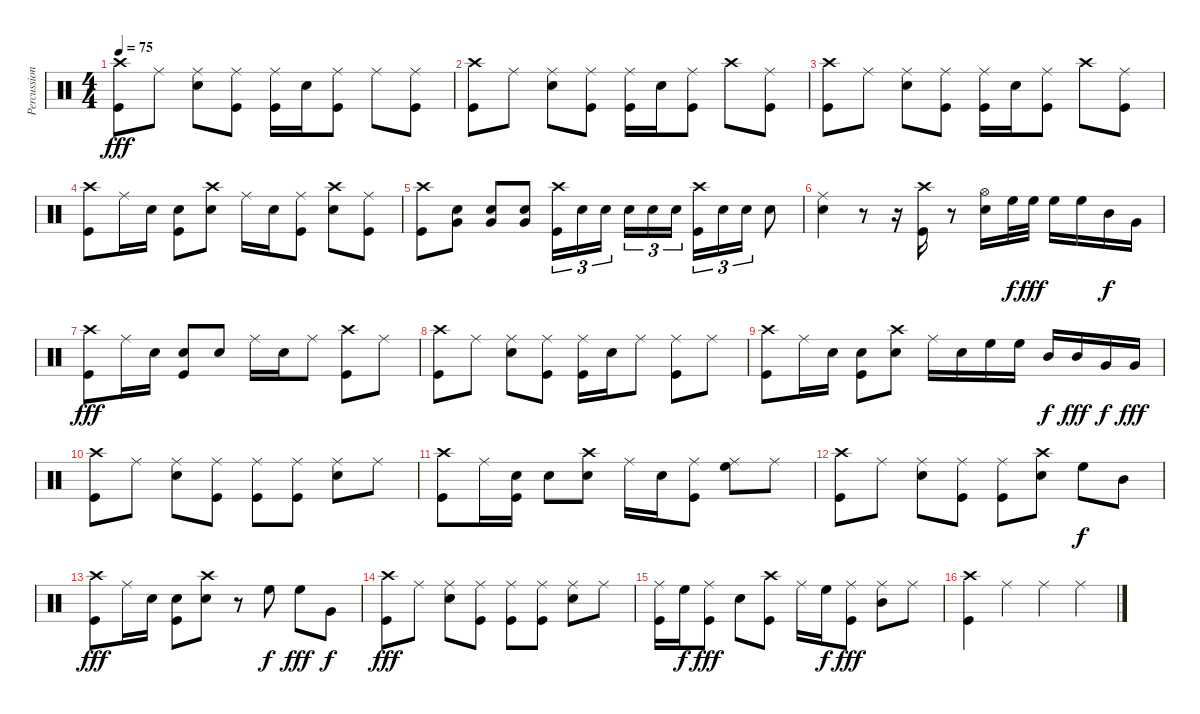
\track ("Percussion" "Percussion") {instrument percussion}
\staff {score}
\articulation defaults
\ts (4 4)
\tempo 75
\clef neutral
\ks c
("Crash high (hit)" "Kick (hit)").8{dy fff} "Ride (middle)".8 ("Ride (middle)" "Snare (hit) 2").8 ("Ride (middle)" "Kick (hit)").8 ("Ride (middle)" "Kick (hit)").16 "Snare (hit) 2".16 ("Ride (middle)" "Kick (hit)").8 "Ride (middle)".8 ("Ride (middle)" "Kick (hit)").8 |
("Crash high (hit)" "Kick (hit)").8 "Ride (middle)".8 ("Ride (middle)" "Snare (hit) 2").8 ("Ride (middle)" "Kick (hit)").8 ("Ride (middle)" "Kick (hit)").16 "Snare (hit) 2".16 ("Ride (middle)" "Kick (hit)").8 "Crash high (hit)".8 ("Ride (middle)" "Kick (hit)").8 |
("Crash high (hit)" "Kick (hit)").8 "Ride (middle)".8 ("Ride (middle)" "Snare (hit) 2").8 ("Ride (middle)" "Kick (hit)").8 ("Ride (middle)" "Kick (hit)").16 "Snare (hit) 2".16 ("Ride (middle)" "Kick (hit)").8 "Crash high (hit)".8 ("Ride (middle)" "Kick (hit)").8 |
("Crash high (hit)" "Kick (hit)").8 "Ride (middle)".16 "Snare (hit) 2".16 ("Snare (hit) 2" "Kick (hit)").8 ("Crash high (hit)" "Snare (hit) 2").8 "Ride (middle)".16 "Snare (hit) 2".16 ("Ride (middle)" "Kick (hit)").8 ("Crash high (hit)" "Snare (hit) 2").8 ("Ride (middle)" "Kick (hit)").8 |
("Crash high (hit)" "Kick (hit)").8 ("Very Low Tom (hit)" "Snare (hit) 2").8 ("Very Low Tom (hit)" "Snare (hit) 2").8 ("Very Low Tom (hit)" "Snare (hit) 2").8 ("Crash high (hit)" "Kick (hit)").16{tu (3 2)} "Snare (hit) 2".16{tu (3 2)} "Snare (hit) 2".16{tu (3 2)} "Snare (hit) 2".16{tu (3 2)} "Snare (hit) 2".16{tu (3 2)} "Snare (hit) 2".16{tu (3 2)} ("Crash high (hit)" "Kick (hit)").16{tu (3 2)} "Snare (hit) 2".16{tu (3 2)} "Snare (hit) 2".16{tu (3 2)} "Snare (hit) 2".8 |
("Ride (middle)" "Snare (hit) 2").4 r.8 r.16 ("Crash high (hit)" "Kick (hit)").16 r.8 ("Hi-Hat (open)" "Snare (hit) 2").16 "High Floor Tom (hit)".32{dy f} "High Floor Tom (hit)".32{dy fff} "High Floor Tom (hit)".16 "High Floor Tom (hit)".16 "Mid Tom (hit)".16{dy f} "Very Low Tom (hit)".16 |
("Crash high (hit)" "Kick (hit)").8{dy fff} "Ride (middle)".16 "Snare (hit) 2".16 ("Snare (hit) 2" "Kick (hit)").8 "Snare (hit) 2".8 "Ride (middle)".16 "Snare (hit) 2".16 "Ride (middle)".8 ("Crash high (hit)" "Kick (hit)").8 "Ride (middle)".8 |
("Crash high (hit)" "Kick (hit)").8 "Ride (middle)".8 ("Ride (middle)" "Snare (hit) 2").8 ("Ride (middle)" "Kick (hit)").8 ("Ride (middle)" "Kick (hit)").16 "Snare (hit) 2".16 "Ride (middle)".8 ("Ride (middle)" "Kick (hit)").8 "Ride (middle)".8 |
("Crash high (hit)" "Kick (hit)").8 "Ride (middle)".16 "Snare (hit) 2".16 ("Snare (hit) 2" "Kick (hit)").8 ("Crash high (hit)" "Snare (hit) 2").8 "Ride (middle)".16 "Snare (hit) 2".16 "High Floor Tom (hit)".16 "High Floor Tom (hit)".16 "Mid Tom (hit)".16{dy f} "Mid Tom (hit)".16{dy fff} "Very Low Tom (hit)".16{dy f} "Very Low Tom (hit)".16{dy fff} |
("Crash high (hit)" "Kick (hit)").8 "Ride (middle)".8 ("Ride (middle)" "Snare (hit) 2").8 ("Ride (middle)" "Kick (hit)").8 ("Ride (middle)" "Kick (hit)").8 ("Ride (middle)" "Kick (hit)").8 ("Ride (middle)" "Snare (hit) 2").8 "Ride (middle)".8 |
("Crash high (hit)" "Kick (hit)").8 "Ride (middle)".16 ("Snare (hit) 2" "Kick (hit)").16 "Snare (hit) 2".8 ("Crash high (hit)" "Snare (hit) 2").8 "Ride (middle)".16 "Snare (hit) 2".16 ("Ride (middle)" "Kick (hit)").8 ("Ride (middle)" "High Floor Tom (hit)").8 "Ride (middle)".8 |
("Crash high (hit)" "Kick (hit)").8 "Ride (middle)".8 ("Ride (middle)" "Snare (hit) 2").8 ("Ride (middle)" "Kick (hit)").8 ("Ride (middle)" "Kick (hit)").8 ("Crash high (hit)" "Snare (hit) 2").8 "High Floor Tom (hit)".8{dy f} "Mid Tom (hit)".8 |
("Crash high (hit)" "Kick (hit)").8{dy fff} "Ride (middle)".16 "Snare (hit) 2".16 ("Snare (hit) 2" "Kick (hit)").8 ("Crash high (hit)" "Snare (hit) 2").8 r.8 "High Floor Tom (hit)".8{dy f} "High Floor Tom (hit)".8{dy fff} "Very Low Tom (hit)".8{dy f} |
("Crash high (hit)" "Kick (hit)").8{dy fff} "Ride (middle)".8 ("Ride (middle)" "Snare (hit) 2").8 ("Ride (middle)" "Kick (hit)").8 ("Ride (middle)" "Kick (hit)").8 ("Ride (middle)" "Kick (hit)").8 ("Ride (middle)" "Snare (hit) 2").8 "Ride (middle)".8 |
("Ride (middle)" "Kick (hit)").16 "High Floor Tom (hit)".16{dy f} ("Ride (middle)" "Kick (hit)").8{dy fff} "Snare (hit) 2".8 ("Crash high (hit)" "Kick (hit)").8 "Ride (middle)".16 "High Floor Tom (hit)".16{dy f} ("Ride (middle)" "Kick (hit)").8{dy fff} ("Ride (middle)" "Mid Tom (hit)").8 "Ride (middle)".8 |
("Crash high (hit)" "Kick (hit)").4 "Ride (middle)".4 "Ride (middle)".4 "Ride (middle)".4
